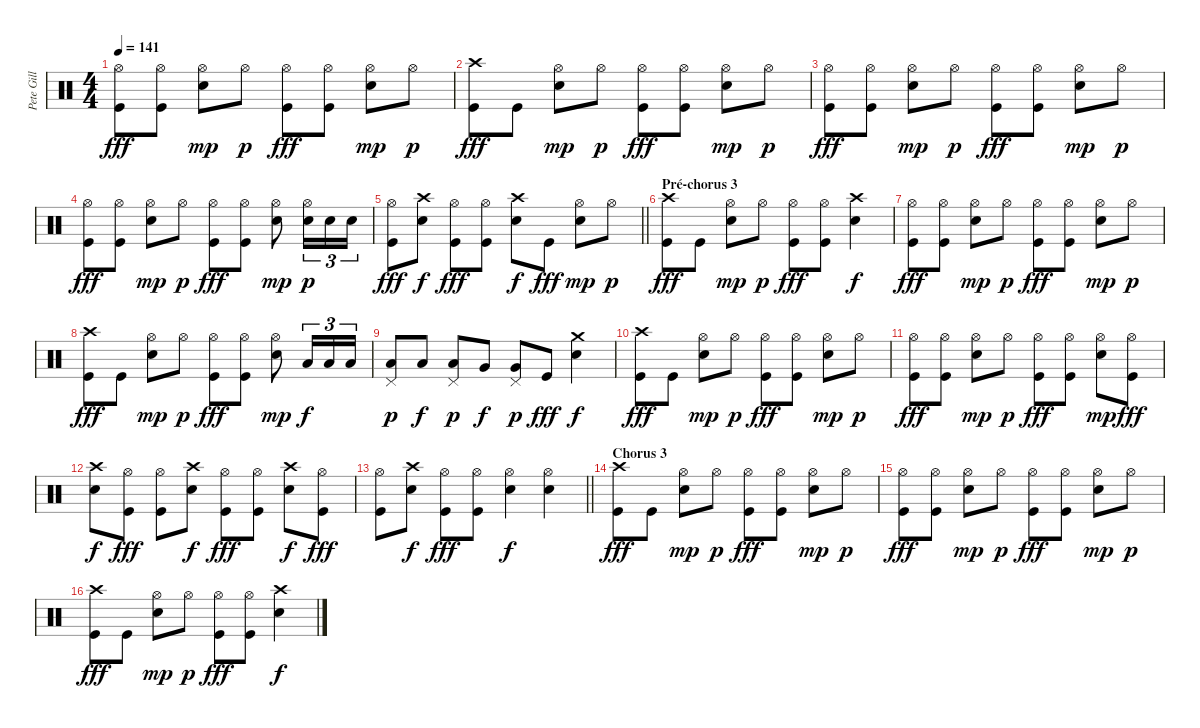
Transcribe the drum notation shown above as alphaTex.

\track ("Pete Gill" "Pete Gill") {instrument percussion}
\staff {score}
\articulation defaults
\ts (4 4)
\tempo 141
\clef neutral
\ks c
("Hi-Hat (open)" "Kick (hit)").8{dy fff} ("Hi-Hat (open)" "Kick (hit)").8 ("Hi-Hat (open)" "Electric Snare (hit)").8{dy mp} "Hi-Hat (open)".8{dy p} ("Hi-Hat (open)" "Kick (hit)").8{dy fff} ("Hi-Hat (open)" "Kick (hit)").8 ("Hi-Hat (open)" "Electric Snare (hit)").8{dy mp} "Hi-Hat (open)".8{dy p} |
("Crash high (hit)" "Kick (hit)").8{dy fff} "Kick (hit)".8 ("Hi-Hat (open)" "Electric Snare (hit)").8{dy mp} "Hi-Hat (open)".8{dy p} ("Hi-Hat (open)" "Kick (hit)").8{dy fff} ("Hi-Hat (open)" "Kick (hit)").8 ("Hi-Hat (open)" "Electric Snare (hit)").8{dy mp} "Hi-Hat (open)".8{dy p} |
("Hi-Hat (open)" "Kick (hit)").8{dy fff} ("Hi-Hat (open)" "Kick (hit)").8 ("Hi-Hat (open)" "Electric Snare (hit)").8{dy mp} "Hi-Hat (open)".8{dy p} ("Hi-Hat (open)" "Kick (hit)").8{dy fff} ("Hi-Hat (open)" "Kick (hit)").8 ("Hi-Hat (open)" "Electric Snare (hit)").8{dy mp} "Hi-Hat (open)".8{dy p} |
("Hi-Hat (open)" "Kick (hit)").8{dy fff} ("Hi-Hat (open)" "Kick (hit)").8 ("Hi-Hat (open)" "Electric Snare (hit)").8{dy mp} "Hi-Hat (open)".8{dy p} ("Hi-Hat (open)" "Kick (hit)").8{dy fff} ("Hi-Hat (open)" "Kick (hit)").8 ("Hi-Hat (open)" "Electric Snare (hit)").8{dy mp} ("Hi-Hat (open)" "Electric Snare (hit)").16{tu (3 2) dy p} "Electric Snare (hit)".16{tu (3 2)} "Electric Snare (hit)".16{tu (3 2)} |
\barLineRight lightlight
("Hi-Hat (open)" "Kick (hit)").8{dy fff} ("Crash high (hit)" "Electric Snare (hit)").8{dy f} ("Hi-Hat (open)" "Kick (hit)").8{dy fff} ("Hi-Hat (open)" "Kick (hit)").8 ("Crash high (hit)" "Electric Snare (hit)").8{dy f} "Kick (hit)".8{dy fff} ("Hi-Hat (open)" "Electric Snare (hit)").8{dy mp} "Hi-Hat (open)".8{dy p} |
\section ("" "Pré-chorus 3")
("Crash high (hit)" "Kick (hit)").8{dy fff} "Kick (hit)".8 ("Hi-Hat (open)" "Electric Snare (hit)").8{dy mp} "Hi-Hat (open)".8{dy p} ("Hi-Hat (open)" "Kick (hit)").8{dy fff} ("Hi-Hat (open)" "Kick (hit)").8 ("Crash high (hit)" "Electric Snare (hit)").4{dy f} |
("Hi-Hat (open)" "Kick (hit)").8{dy fff} ("Hi-Hat (open)" "Kick (hit)").8 ("Hi-Hat (open)" "Electric Snare (hit)").8{dy mp} "Hi-Hat (open)".8{dy p} ("Hi-Hat (open)" "Kick (hit)").8{dy fff} ("Hi-Hat (open)" "Kick (hit)").8 ("Hi-Hat (open)" "Electric Snare (hit)").8{dy mp} "Hi-Hat (open)".8{dy p} |
("Crash high (hit)" "Kick (hit)").8{dy fff} "Kick (hit)".8 ("Hi-Hat (open)" "Electric Snare (hit)").8{dy mp} "Hi-Hat (open)".8{dy p} ("Hi-Hat (open)" "Kick (hit)").8{dy fff} ("Hi-Hat (open)" "Kick (hit)").8 ("Hi-Hat (open)" "Electric Snare (hit)").8{dy mp} "Low Tom (hit)".16{tu (3 2) dy f} "Low Tom (hit)".16{tu (3 2)} "Low Tom (hit)".16{tu (3 2)} |
("Pedal Hi-Hat (hit)" "Low Tom (hit)").8{dy p} "Low Tom (hit)".8{dy f} ("Pedal Hi-Hat (hit)" "Low Tom (hit)").8{dy p} "Very Low Tom (hit)".8{dy f} ("Pedal Hi-Hat (hit)" "Very Low Tom (hit)").8{dy p} "Kick (hit)".8{dy fff} ("Crash medium (hit)" "Electric Snare (hit)").4{dy f} |
("Crash high (hit)" "Kick (hit)").8{dy fff} "Kick (hit)".8 ("Hi-Hat (open)" "Electric Snare (hit)").8{dy mp} "Hi-Hat (open)".8{dy p} ("Hi-Hat (open)" "Kick (hit)").8{dy fff} ("Hi-Hat (open)" "Kick (hit)").8 ("Hi-Hat (open)" "Electric Snare (hit)").8{dy mp} "Hi-Hat (open)".8{dy p} |
("Hi-Hat (open)" "Kick (hit)").8{dy fff} ("Hi-Hat (open)" "Kick (hit)").8 ("Hi-Hat (open)" "Electric Snare (hit)").8{dy mp} "Hi-Hat (open)".8{dy p} ("Hi-Hat (open)" "Kick (hit)").8{dy fff} ("Hi-Hat (open)" "Kick (hit)").8 ("Hi-Hat (open)" "Electric Snare (hit)").8{dy mp} ("Hi-Hat (open)" "Kick (hit)").8{dy fff} |
("Crash high (hit)" "Electric Snare (hit)").8{dy f} ("Hi-Hat (open)" "Kick (hit)").8{dy fff} ("Hi-Hat (open)" "Kick (hit)").8 ("Crash high (hit)" "Electric Snare (hit)").8{dy f} ("Hi-Hat (open)" "Kick (hit)").8{dy fff} ("Hi-Hat (open)" "Kick (hit)").8 ("Crash high (hit)" "Electric Snare (hit)").8{dy f} ("Hi-Hat (open)" "Kick (hit)").8{dy fff} |
\barLineRight lightlight
("Hi-Hat (open)" "Kick (hit)").8 ("Crash high (hit)" "Electric Snare (hit)").8{dy f} ("Hi-Hat (open)" "Kick (hit)").8{dy fff} ("Hi-Hat (open)" "Kick (hit)").8 ("Hi-Hat (open)" "Electric Snare (hit)").4{dy f} ("Hi-Hat (open)" "Electric Snare (hit)").4 |
\section ("" "Chorus 3")
("Crash high (hit)" "Kick (hit)").8{dy fff} "Kick (hit)".8 ("Hi-Hat (open)" "Electric Snare (hit)").8{dy mp} "Hi-Hat (open)".8{dy p} ("Hi-Hat (open)" "Kick (hit)").8{dy fff} ("Hi-Hat (open)" "Kick (hit)").8 ("Hi-Hat (open)" "Electric Snare (hit)").8{dy mp} "Hi-Hat (open)".8{dy p} |
("Hi-Hat (open)" "Kick (hit)").8{dy fff} ("Hi-Hat (open)" "Kick (hit)").8 ("Hi-Hat (open)" "Electric Snare (hit)").8{dy mp} "Hi-Hat (open)".8{dy p} ("Hi-Hat (open)" "Kick (hit)").8{dy fff} ("Hi-Hat (open)" "Kick (hit)").8 ("Hi-Hat (open)" "Electric Snare (hit)").8{dy mp} "Hi-Hat (open)".8{dy p} |
("Crash high (hit)" "Kick (hit)").8{dy fff} "Kick (hit)".8 ("Hi-Hat (open)" "Electric Snare (hit)").8{dy mp} "Hi-Hat (open)".8{dy p} ("Hi-Hat (open)" "Kick (hit)").8{dy fff} ("Hi-Hat (open)" "Kick (hit)").8 ("Crash high (hit)" "Electric Snare (hit)").4{dy f}
